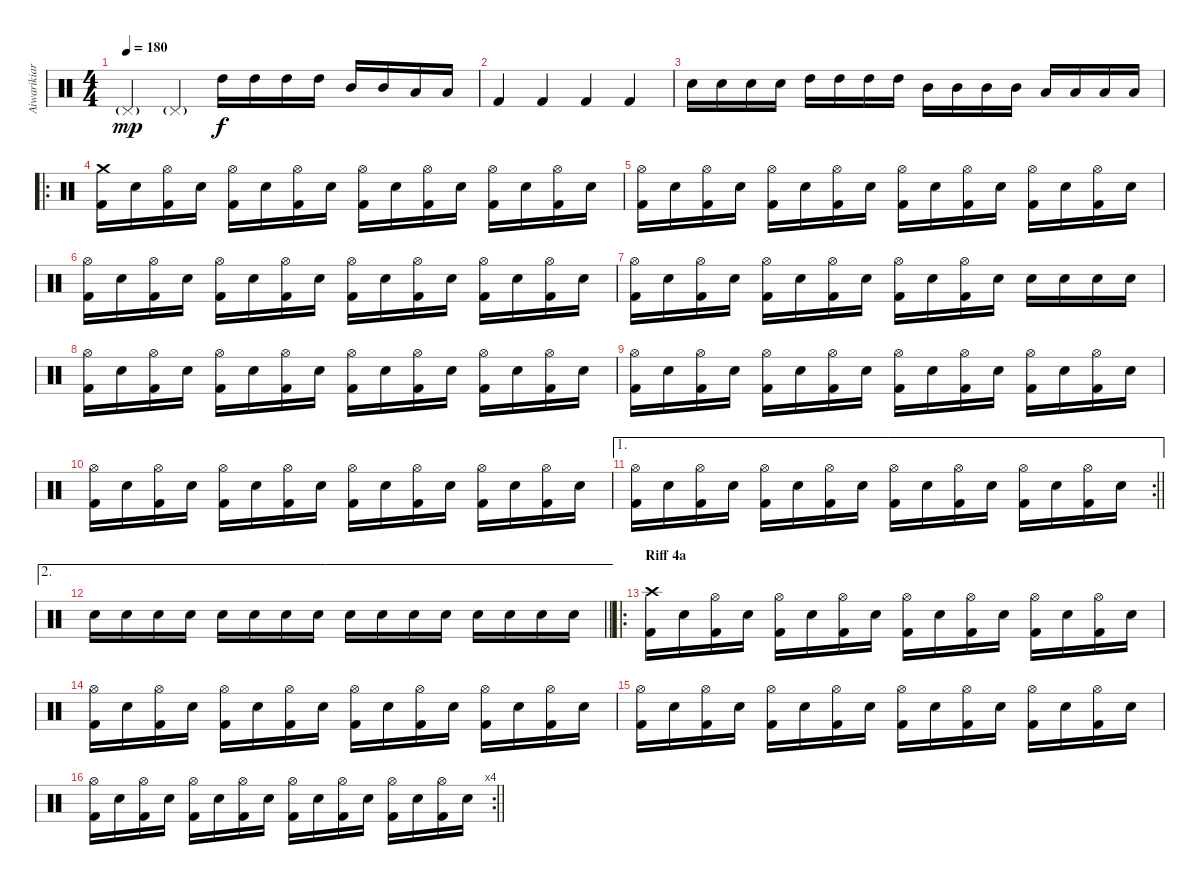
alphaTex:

\track ("Aiwarikiar" "Aiwarikiar") {instrument percussion}
\staff {score}
\articulation defaults
\ts (4 4)
\tempo 180
\clef neutral
\ks c "Pedal Hi-Hat (hit)"{g}.4{dy mp} "Pedal Hi-Hat (hit)"{g}.4 "High Tom (hit)".16{dy f} "High Tom (hit)".16 "High Tom (hit)".16 "High Tom (hit)".16 "Mid Tom (hit)".16 "Mid Tom (hit)".16 "Low Tom (hit)".16 "Low Tom (hit)".16
|
"Kick (hit) 2".4 "Kick (hit) 2".4 "Kick (hit) 2".4 "Kick (hit) 2".4 |
"Electric Snare (hit)".16 "Electric Snare (hit)".16 "Electric Snare (hit)".16 "Electric Snare (hit)".16 "High Tom (hit)".16 "High Tom (hit)".16 "High Tom (hit)".16 "High Tom (hit)".16 "Mid Tom (hit)".16 "Mid Tom (hit)".16 "Mid Tom (hit)".16 "Mid Tom (hit)".16 "Low Tom (hit)".16 "Low Tom (hit)".16 "Low Tom (hit)".16 "Low Tom (hit)".16 |
\ro
("Crash medium (hit)" "Kick (hit) 2").16 "Electric Snare (hit)".16 ("Hi-Hat (open)" "Kick (hit) 2").16 "Electric Snare (hit)".16 ("Hi-Hat (open)" "Kick (hit) 2").16 "Electric Snare (hit)".16 ("Hi-Hat (open)" "Kick (hit) 2").16 "Electric Snare (hit)".16 ("Hi-Hat (open)" "Kick (hit) 2").16 "Electric Snare (hit)".16 ("Hi-Hat (open)" "Kick (hit) 2").16 "Electric Snare (hit)".16 ("Hi-Hat (open)" "Kick (hit) 2").16 "Electric Snare (hit)".16 ("Hi-Hat (open)" "Kick (hit) 2").16 "Electric Snare (hit)".16 |
("Hi-Hat (open)" "Kick (hit) 2").16 "Electric Snare (hit)".16 ("Hi-Hat (open)" "Kick (hit) 2").16 "Electric Snare (hit)".16 ("Hi-Hat (open)" "Kick (hit) 2").16 "Electric Snare (hit)".16 ("Hi-Hat (open)" "Kick (hit) 2").16 "Electric Snare (hit)".16 ("Hi-Hat (open)" "Kick (hit) 2").16 "Electric Snare (hit)".16 ("Hi-Hat (open)" "Kick (hit) 2").16 "Electric Snare (hit)".16 ("Hi-Hat (open)" "Kick (hit) 2").16 "Electric Snare (hit)".16 ("Hi-Hat (open)" "Kick (hit) 2").16 "Electric Snare (hit)".16 |
("Hi-Hat (open)" "Kick (hit) 2").16 "Electric Snare (hit)".16 ("Hi-Hat (open)" "Kick (hit) 2").16 "Electric Snare (hit)".16 ("Hi-Hat (open)" "Kick (hit) 2").16 "Electric Snare (hit)".16 ("Hi-Hat (open)" "Kick (hit) 2").16 "Electric Snare (hit)".16 ("Hi-Hat (open)" "Kick (hit) 2").16 "Electric Snare (hit)".16 ("Hi-Hat (open)" "Kick (hit) 2").16 "Electric Snare (hit)".16 ("Hi-Hat (open)" "Kick (hit) 2").16 "Electric Snare (hit)".16 ("Hi-Hat (open)" "Kick (hit) 2").16 "Electric Snare (hit)".16 |
("Hi-Hat (open)" "Kick (hit) 2").16 "Electric Snare (hit)".16 ("Hi-Hat (open)" "Kick (hit) 2").16 "Electric Snare (hit)".16 ("Hi-Hat (open)" "Kick (hit) 2").16 "Electric Snare (hit)".16 ("Hi-Hat (open)" "Kick (hit) 2").16 "Electric Snare (hit)".16 ("Hi-Hat (open)" "Kick (hit) 2").16 "Electric Snare (hit)".16 ("Hi-Hat (open)" "Kick (hit) 2").16 "Electric Snare (hit)".16 "Electric Snare (hit)".16 "Electric Snare (hit)".16 "Electric Snare (hit)".16 "Electric Snare (hit)".16 |
("Hi-Hat (open)" "Kick (hit) 2").16 "Electric Snare (hit)".16 ("Hi-Hat (open)" "Kick (hit) 2").16 "Electric Snare (hit)".16 ("Hi-Hat (open)" "Kick (hit) 2").16 "Electric Snare (hit)".16 ("Hi-Hat (open)" "Kick (hit) 2").16 "Electric Snare (hit)".16 ("Hi-Hat (open)" "Kick (hit) 2").16 "Electric Snare (hit)".16 ("Hi-Hat (open)" "Kick (hit) 2").16 "Electric Snare (hit)".16 ("Hi-Hat (open)" "Kick (hit) 2").16 "Electric Snare (hit)".16 ("Hi-Hat (open)" "Kick (hit) 2").16 "Electric Snare (hit)".16 |
("Hi-Hat (open)" "Kick (hit) 2").16 "Electric Snare (hit)".16 ("Hi-Hat (open)" "Kick (hit) 2").16 "Electric Snare (hit)".16 ("Hi-Hat (open)" "Kick (hit) 2").16 "Electric Snare (hit)".16 ("Hi-Hat (open)" "Kick (hit) 2").16 "Electric Snare (hit)".16 ("Hi-Hat (open)" "Kick (hit) 2").16 "Electric Snare (hit)".16 ("Hi-Hat (open)" "Kick (hit) 2").16 "Electric Snare (hit)".16 ("Hi-Hat (open)" "Kick (hit) 2").16 "Electric Snare (hit)".16 ("Hi-Hat (open)" "Kick (hit) 2").16 "Electric Snare (hit)".16 |
("Hi-Hat (open)" "Kick (hit) 2").16 "Electric Snare (hit)".16 ("Hi-Hat (open)" "Kick (hit) 2").16 "Electric Snare (hit)".16 ("Hi-Hat (open)" "Kick (hit) 2").16 "Electric Snare (hit)".16 ("Hi-Hat (open)" "Kick (hit) 2").16 "Electric Snare (hit)".16 ("Hi-Hat (open)" "Kick (hit) 2").16 "Electric Snare (hit)".16 ("Hi-Hat (open)" "Kick (hit) 2").16 "Electric Snare (hit)".16 ("Hi-Hat (open)" "Kick (hit) 2").16 "Electric Snare (hit)".16 ("Hi-Hat (open)" "Kick (hit) 2").16 "Electric Snare (hit)".16 |
\ae 1
\rc 2
\barLineRight lightlight
("Hi-Hat (open)" "Kick (hit) 2").16 "Electric Snare (hit)".16 ("Hi-Hat (open)" "Kick (hit) 2").16 "Electric Snare (hit)".16 ("Hi-Hat (open)" "Kick (hit) 2").16 "Electric Snare (hit)".16 ("Hi-Hat (open)" "Kick (hit) 2").16 "Electric Snare (hit)".16 ("Hi-Hat (open)" "Kick (hit) 2").16 "Electric Snare (hit)".16 ("Hi-Hat (open)" "Kick (hit) 2").16 "Electric Snare (hit)".16 ("Hi-Hat (open)" "Kick (hit) 2").16 "Electric Snare (hit)".16 ("Hi-Hat (open)" "Kick (hit) 2").16 "Electric Snare (hit)".16 |
\ae 2
\barLineRight lightlight "Electric Snare (hit)".16 "Electric Snare (hit)".16 "Electric Snare (hit)".16 "Electric Snare (hit)".16 "Electric Snare (hit)".16 "Electric Snare (hit)".16 "Electric Snare (hit)".16 "Electric Snare (hit)".16 "Electric Snare (hit)".16 "Electric Snare (hit)".16 "Electric Snare (hit)".16 "Electric Snare (hit)".16 "Electric Snare (hit)".16 "Electric Snare (hit)".16 "Electric Snare (hit)".16 "Electric Snare (hit)".16
|
\ro
\section ("" "Riff 4a")
("Crash high (hit)" "Kick (hit) 2").16 "Electric Snare (hit)".16 ("Hi-Hat (open)" "Kick (hit) 2").16 "Electric Snare (hit)".16 ("Hi-Hat (open)" "Kick (hit) 2").16 "Electric Snare (hit)".16 ("Hi-Hat (open)" "Kick (hit) 2").16 "Electric Snare (hit)".16 ("Hi-Hat (open)" "Kick (hit) 2").16 "Electric Snare (hit)".16 ("Hi-Hat (open)" "Kick (hit) 2").16 "Electric Snare (hit)".16 ("Hi-Hat (open)" "Kick (hit) 2").16 "Electric Snare (hit)".16 ("Hi-Hat (open)" "Kick (hit) 2").16 "Electric Snare (hit)".16 |
("Hi-Hat (open)" "Kick (hit) 2").16 "Electric Snare (hit)".16 ("Hi-Hat (open)" "Kick (hit) 2").16 "Electric Snare (hit)".16 ("Hi-Hat (open)" "Kick (hit) 2").16 "Electric Snare (hit)".16 ("Hi-Hat (open)" "Kick (hit) 2").16 "Electric Snare (hit)".16 ("Hi-Hat (open)" "Kick (hit) 2").16 "Electric Snare (hit)".16 ("Hi-Hat (open)" "Kick (hit) 2").16 "Electric Snare (hit)".16 ("Hi-Hat (open)" "Kick (hit) 2").16 "Electric Snare (hit)".16 ("Hi-Hat (open)" "Kick (hit) 2").16 "Electric Snare (hit)".16 |
("Hi-Hat (open)" "Kick (hit) 2").16 "Electric Snare (hit)".16 ("Hi-Hat (open)" "Kick (hit) 2").16 "Electric Snare (hit)".16 ("Hi-Hat (open)" "Kick (hit) 2").16 "Electric Snare (hit)".16 ("Hi-Hat (open)" "Kick (hit) 2").16 "Electric Snare (hit)".16 ("Hi-Hat (open)" "Kick (hit) 2").16 "Electric Snare (hit)".16 ("Hi-Hat (open)" "Kick (hit) 2").16 "Electric Snare (hit)".16 ("Hi-Hat (open)" "Kick (hit) 2").16 "Electric Snare (hit)".16 ("Hi-Hat (open)" "Kick (hit) 2").16 "Electric Snare (hit)".16 |
\rc 4
\barLineRight lightlight
("Hi-Hat (open)" "Kick (hit) 2").16 "Electric Snare (hit)".16 ("Hi-Hat (open)" "Kick (hit) 2").16 "Electric Snare (hit)".16 ("Hi-Hat (open)" "Kick (hit) 2").16 "Electric Snare (hit)".16 ("Hi-Hat (open)" "Kick (hit) 2").16 "Electric Snare (hit)".16 ("Hi-Hat (open)" "Kick (hit) 2").16 "Electric Snare (hit)".16 ("Hi-Hat (open)" "Kick (hit) 2").16 "Electric Snare (hit)".16 ("Hi-Hat (open)" "Kick (hit) 2").16 "Electric Snare (hit)".16 ("Hi-Hat (open)" "Kick (hit) 2").16 "Electric Snare (hit)".16
